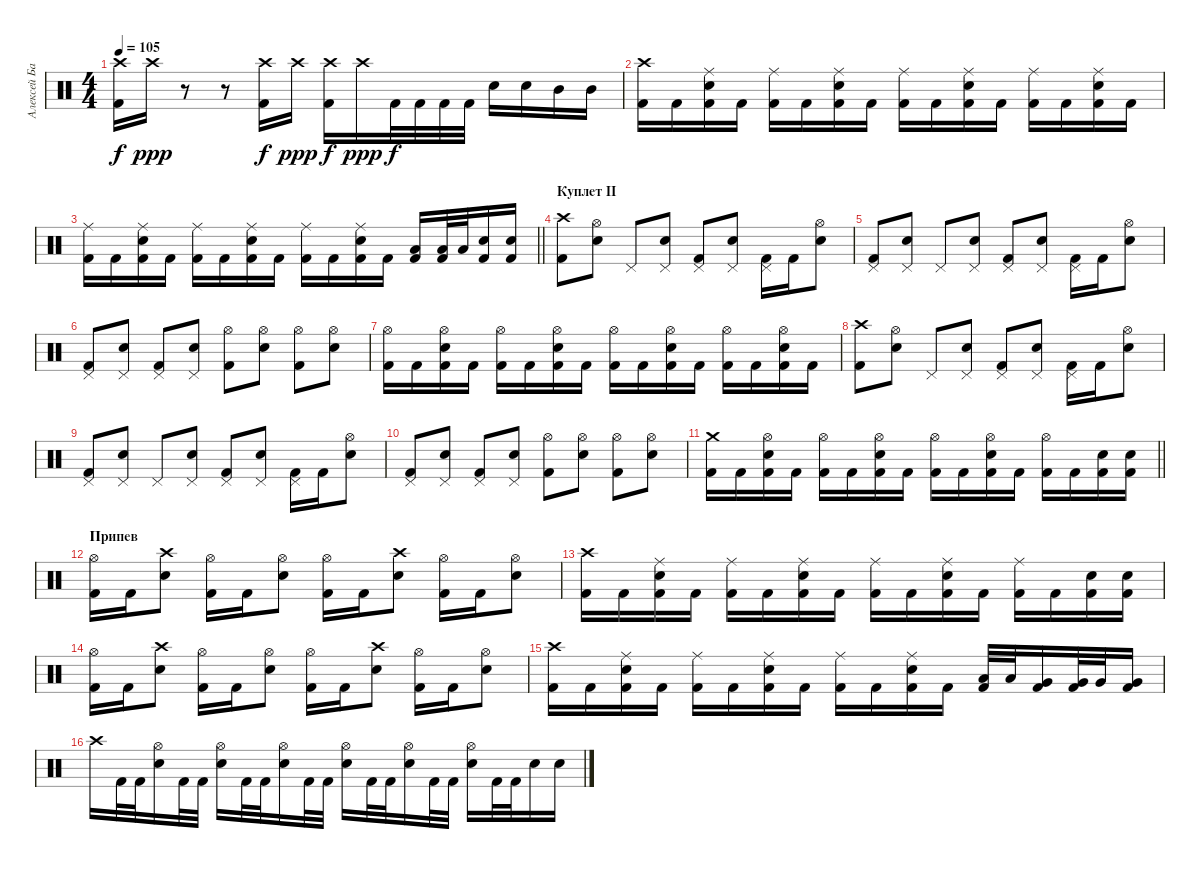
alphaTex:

\track ("Алексей Барзилович" "Алексей Ба") {instrument percussion}
\staff {score}
\articulation defaults
\ts (4 4)
\tempo 105
\clef neutral
\ks c
("Crash high (hit)" "Kick (hit) 2").16{dy f} "Crash high (hit)".16{dy ppp} r.8 r.8 ("Crash high (hit)" "Kick (hit) 2").16{dy f} "Crash high (hit)".16{dy ppp} ("Crash high (hit)" "Kick (hit) 2").16{dy f} "Crash high (hit)".16{dy ppp} "Kick (hit) 2".32{dy f} "Kick (hit) 2".32 "Kick (hit) 2".32 "Kick (hit) 2".32 "Electric Snare (hit)".16 "Electric Snare (hit)".16 "Mid Tom (hit)".16 "Mid Tom (hit)".16 |
("Crash high (hit)" "Kick (hit) 2").16 "Kick (hit) 2".16 ("Ride (middle)" "Electric Snare (hit)" "Kick (hit) 2").16 "Kick (hit) 2".16 ("Ride (middle)" "Kick (hit) 2").16 "Kick (hit) 2".16 ("Ride (middle)" "Electric Snare (hit)" "Kick (hit) 2").16 "Kick (hit) 2".16 ("Ride (middle)" "Kick (hit) 2").16 "Kick (hit) 2".16 ("Ride (middle)" "Electric Snare (hit)" "Kick (hit) 2").16 "Kick (hit) 2".16 ("Ride (middle)" "Kick (hit) 2").16 "Kick (hit) 2".16 ("Ride (middle)" "Electric Snare (hit)" "Kick (hit) 2").16 "Kick (hit) 2".16 |
\barLineRight lightlight
("Ride (middle)" "Kick (hit) 2").16 "Kick (hit) 2".16 ("Ride (middle)" "Electric Snare (hit)" "Kick (hit) 2").16 "Kick (hit) 2".16 ("Ride (middle)" "Kick (hit) 2").16 "Kick (hit) 2".16 ("Ride (middle)" "Electric Snare (hit)" "Kick (hit) 2").16 "Kick (hit) 2".16 ("Ride (middle)" "Kick (hit) 2").16 "Kick (hit) 2".16 ("Ride (middle)" "Electric Snare (hit)" "Kick (hit) 2").16 "Kick (hit) 2".16 ("Low Tom (hit)" "Kick (hit) 2").16 ("Low Tom (hit)" "Kick (hit) 2").32 "Low Tom (hit)".32 ("Electric Snare (hit)" "Kick (hit) 2").16 ("Electric Snare (hit)" "Kick (hit) 2").16 |
\section ("" "Куплет II")
("Crash high (hit)" "Kick (hit) 2").8 ("Hi-Hat (open)" "Electric Snare (hit)").8 "Pedal Hi-Hat (hit)".8 ("Pedal Hi-Hat (hit)" "Electric Snare (hit)").8 ("Pedal Hi-Hat (hit)" "Kick (hit) 2").8 ("Pedal Hi-Hat (hit)" "Electric Snare (hit)").8 ("Pedal Hi-Hat (hit)" "Kick (hit) 2").16 "Kick (hit) 2".16 ("Hi-Hat (open)" "Electric Snare (hit)").8 |
("Pedal Hi-Hat (hit)" "Kick (hit) 2").8 ("Pedal Hi-Hat (hit)" "Electric Snare (hit)").8 "Pedal Hi-Hat (hit)".8 ("Pedal Hi-Hat (hit)" "Electric Snare (hit)").8 ("Pedal Hi-Hat (hit)" "Kick (hit) 2").8 ("Pedal Hi-Hat (hit)" "Electric Snare (hit)").8 ("Pedal Hi-Hat (hit)" "Kick (hit) 2").16 "Kick (hit) 2".16 ("Hi-Hat (open)" "Electric Snare (hit)").8 |
("Pedal Hi-Hat (hit)" "Kick (hit) 2").8 ("Pedal Hi-Hat (hit)" "Electric Snare (hit)").8 ("Pedal Hi-Hat (hit)" "Kick (hit) 2").8 ("Pedal Hi-Hat (hit)" "Electric Snare (hit)").8 ("Hi-Hat (open)" "Kick (hit) 2").8 ("Hi-Hat (open)" "Electric Snare (hit)").8 ("Hi-Hat (open)" "Kick (hit) 2").8 ("Hi-Hat (open)" "Electric Snare (hit)").8 |
("Hi-Hat (open)" "Kick (hit) 2").16 "Kick (hit) 2".16 ("Hi-Hat (open)" "Electric Snare (hit)" "Kick (hit) 2").16 "Kick (hit) 2".16 ("Hi-Hat (open)" "Kick (hit) 2").16 "Kick (hit) 2".16 ("Hi-Hat (open)" "Electric Snare (hit)" "Kick (hit) 2").16 "Kick (hit) 2".16 ("Hi-Hat (open)" "Kick (hit) 2").16 "Kick (hit) 2".16 ("Hi-Hat (open)" "Electric Snare (hit)" "Kick (hit) 2").16 "Kick (hit) 2".16 ("Hi-Hat (open)" "Kick (hit) 2").16 "Kick (hit) 2".16 ("Hi-Hat (open)" "Electric Snare (hit)" "Kick (hit) 2").16 "Kick (hit) 2".16 |
("Crash high (hit)" "Kick (hit) 2").8 ("Hi-Hat (open)" "Electric Snare (hit)").8 "Pedal Hi-Hat (hit)".8 ("Pedal Hi-Hat (hit)" "Electric Snare (hit)").8 ("Pedal Hi-Hat (hit)" "Kick (hit) 2").8 ("Pedal Hi-Hat (hit)" "Electric Snare (hit)").8 ("Pedal Hi-Hat (hit)" "Kick (hit) 2").16 "Kick (hit) 2".16 ("Hi-Hat (open)" "Electric Snare (hit)").8 |
("Pedal Hi-Hat (hit)" "Kick (hit) 2").8 ("Pedal Hi-Hat (hit)" "Electric Snare (hit)").8 "Pedal Hi-Hat (hit)".8 ("Pedal Hi-Hat (hit)" "Electric Snare (hit)").8 ("Pedal Hi-Hat (hit)" "Kick (hit) 2").8 ("Pedal Hi-Hat (hit)" "Electric Snare (hit)").8 ("Pedal Hi-Hat (hit)" "Kick (hit) 2").16 "Kick (hit) 2".16 ("Hi-Hat (open)" "Electric Snare (hit)").8 |
("Pedal Hi-Hat (hit)" "Kick (hit) 2").8 ("Pedal Hi-Hat (hit)" "Electric Snare (hit)").8 ("Pedal Hi-Hat (hit)" "Kick (hit) 2").8 ("Pedal Hi-Hat (hit)" "Electric Snare (hit)").8 ("Hi-Hat (open)" "Kick (hit) 2").8 ("Hi-Hat (open)" "Electric Snare (hit)").8 ("Hi-Hat (open)" "Kick (hit) 2").8 ("Hi-Hat (open)" "Electric Snare (hit)").8 |
\barLineRight lightlight
("Crash medium (hit)" "Kick (hit) 2").16 "Kick (hit) 2".16 ("Hi-Hat (open)" "Electric Snare (hit)" "Kick (hit) 2").16 "Kick (hit) 2".16 ("Hi-Hat (open)" "Kick (hit) 2").16 "Kick (hit) 2".16 ("Hi-Hat (open)" "Electric Snare (hit)" "Kick (hit) 2").16 "Kick (hit) 2".16 ("Hi-Hat (open)" "Kick (hit) 2").16 "Kick (hit) 2".16 ("Hi-Hat (open)" "Electric Snare (hit)" "Kick (hit) 2").16 "Kick (hit) 2".16 ("Hi-Hat (open)" "Kick (hit) 2").16 "Kick (hit) 2".16 ("Electric Snare (hit)" "Kick (hit) 2").16 ("Electric Snare (hit)" "Kick (hit) 2").16 |
\section ("" "Припев")
("Hi-Hat (open)" "Kick (hit) 2").16 "Kick (hit) 2".16 ("Crash high (hit)" "Electric Snare (hit)").8 ("Hi-Hat (open)" "Kick (hit) 2").16 "Kick (hit) 2".16 ("Hi-Hat (open)" "Electric Snare (hit)").8 ("Hi-Hat (open)" "Kick (hit) 2").16 "Kick (hit) 2".16 ("Crash high (hit)" "Electric Snare (hit)").8 ("Hi-Hat (open)" "Kick (hit) 2").16 "Kick (hit) 2".16 ("Hi-Hat (open)" "Electric Snare (hit)").8 |
("Crash high (hit)" "Kick (hit) 2").16 "Kick (hit) 2".16 ("Ride (middle)" "Electric Snare (hit)" "Kick (hit) 2").16 "Kick (hit) 2".16 ("Ride (middle)" "Kick (hit) 2").16 "Kick (hit) 2".16 ("Ride (middle)" "Electric Snare (hit)" "Kick (hit) 2").16 "Kick (hit) 2".16 ("Ride (middle)" "Kick (hit) 2").16 "Kick (hit) 2".16 ("Ride (middle)" "Electric Snare (hit)" "Kick (hit) 2").16 "Kick (hit) 2".16 ("Ride (middle)" "Kick (hit) 2").16 "Kick (hit) 2".16 ("Electric Snare (hit)" "Kick (hit) 2").16 ("Electric Snare (hit)" "Kick (hit) 2").16 |
("Hi-Hat (open)" "Kick (hit) 2").16 "Kick (hit) 2".16 ("Crash high (hit)" "Electric Snare (hit)").8 ("Hi-Hat (open)" "Kick (hit) 2").16 "Kick (hit) 2".16 ("Hi-Hat (open)" "Electric Snare (hit)").8 ("Hi-Hat (open)" "Kick (hit) 2").16 "Kick (hit) 2".16 ("Crash high (hit)" "Electric Snare (hit)").8 ("Hi-Hat (open)" "Kick (hit) 2").16 "Kick (hit) 2".16 ("Hi-Hat (open)" "Electric Snare (hit)").8 |
("Crash high (hit)" "Kick (hit) 2").16 "Kick (hit) 2".16 ("Ride (middle)" "Electric Snare (hit)" "Kick (hit) 2").16 "Kick (hit) 2".16 ("Ride (middle)" "Kick (hit) 2").16 "Kick (hit) 2".16 ("Ride (middle)" "Electric Snare (hit)" "Kick (hit) 2").16 "Kick (hit) 2".16 ("Ride (middle)" "Kick (hit) 2").16 "Kick (hit) 2".16 ("Ride (middle)" "Electric Snare (hit)" "Kick (hit) 2").16 "Kick (hit) 2".16 ("Low Tom (hit)" "Kick (hit) 2").32 "Low Tom (hit)".32 ("Very Low Tom (hit)" "Kick (hit) 2").16 ("Very Low Tom (hit)" "Kick (hit) 2").32 "Very Low Tom (hit)".32 ("Very Low Tom (hit)" "Kick (hit) 2").16 |
"Crash high (hit)".16 "Kick (hit) 2".32 "Kick (hit) 2".32 ("Hi-Hat (open)" "Electric Snare (hit)").16 "Kick (hit) 2".32 "Kick (hit) 2".32 ("Hi-Hat (open)" "Electric Snare (hit)").16 "Kick (hit) 2".32 "Kick (hit) 2".32 ("Hi-Hat (open)" "Electric Snare (hit)").16 "Kick (hit) 2".32 "Kick (hit) 2".32 ("Hi-Hat (open)" "Electric Snare (hit)").16 "Kick (hit) 2".32 "Kick (hit) 2".32 ("Hi-Hat (open)" "Electric Snare (hit)").16 "Kick (hit) 2".32 "Kick (hit) 2".32 ("Hi-Hat (open)" "Electric Snare (hit)").16 "Kick (hit) 2".32 "Kick (hit) 2".32 "Electric Snare (hit)".16 "Electric Snare (hit)".16
